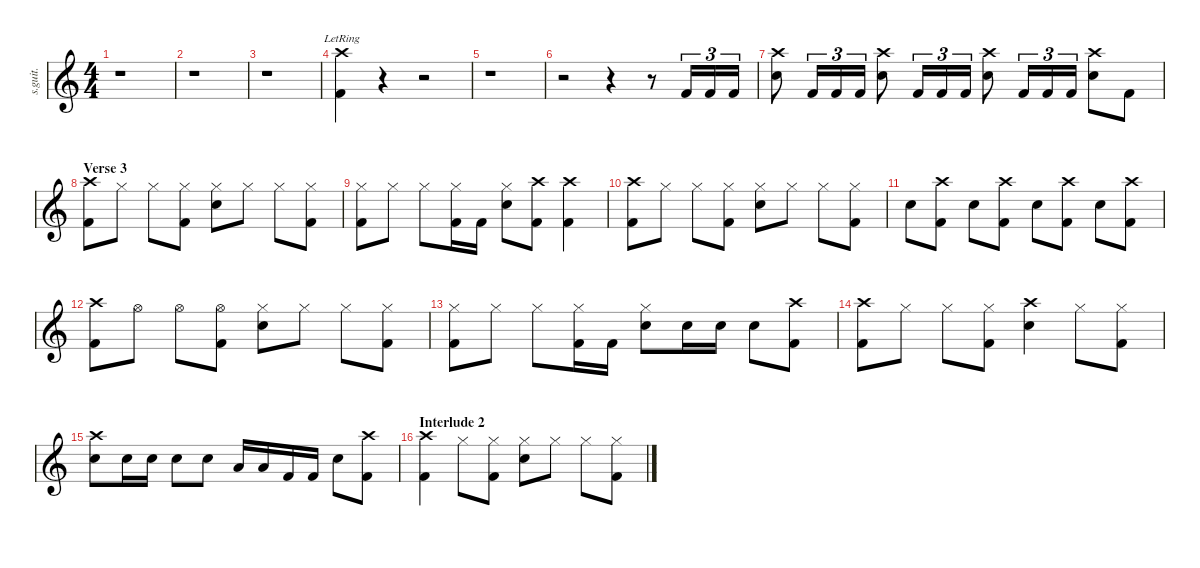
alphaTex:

\defaultSystemsLayout 4
\hideDynamics
\bracketExtendMode nobrackets
\track ("Lars Ulrich - Drumzzz" "s.guit.") {instrument percussion}
\staff {score}
\articulation defaults
\ts (4 4)
\tempo (142 hide)
\clef g2
\ks c
r.1{dy f} |
r.1 |
r.1 |
("Crash high (hit)"{lr} "Kick (hit) 2"{lr}).4{lyrics (0 "") lyrics (1 "") lyrics (2 "") lyrics (3 "") lyrics (4 "")} r.4 r.2 |
r.1 |
r.2 r.4 r.8 "Kick (hit) 2".16{tu (3 2) lyrics (0 "") lyrics (1 "") lyrics (2 "") lyrics (3 "") lyrics (4 "")} "Kick (hit) 2".16{tu (3 2) lyrics (0 "") lyrics (1 "") lyrics (2 "") lyrics (3 "") lyrics (4 "")} "Kick (hit) 2".16{tu (3 2) lyrics (0 "") lyrics (1 "") lyrics (2 "") lyrics (3 "") lyrics (4 "")} |
("Crash high (hit)" "Snare (hit) 2").8{lyrics (0 "") lyrics (1 "") lyrics (2 "") lyrics (3 "") lyrics (4 "")} "Kick (hit) 2".16{tu (3 2) lyrics (0 "") lyrics (1 "") lyrics (2 "") lyrics (3 "") lyrics (4 "")} "Kick (hit) 2".16{tu (3 2) lyrics (0 "") lyrics (1 "") lyrics (2 "") lyrics (3 "") lyrics (4 "")} "Kick (hit) 2".16{tu (3 2) lyrics (0 "") lyrics (1 "") lyrics (2 "") lyrics (3 "") lyrics (4 "")} ("Crash high (hit)" "Snare (hit) 2").8{lyrics (0 "") lyrics (1 "") lyrics (2 "") lyrics (3 "") lyrics (4 "")} "Kick (hit) 2".16{tu (3 2) lyrics (0 "") lyrics (1 "") lyrics (2 "") lyrics (3 "") lyrics (4 "")} "Kick (hit) 2".16{tu (3 2) lyrics (0 "") lyrics (1 "") lyrics (2 "") lyrics (3 "") lyrics (4 "")} "Kick (hit) 2".16{tu (3 2) lyrics (0 "") lyrics (1 "") lyrics (2 "") lyrics (3 "") lyrics (4 "")} ("Crash high (hit)" "Snare (hit) 2").8{lyrics (0 "") lyrics (1 "") lyrics (2 "") lyrics (3 "") lyrics (4 "")} "Kick (hit) 2".16{tu (3 2) lyrics (0 "") lyrics (1 "") lyrics (2 "") lyrics (3 "") lyrics (4 "")} "Kick (hit) 2".16{tu (3 2) lyrics (0 "") lyrics (1 "") lyrics (2 "") lyrics (3 "") lyrics (4 "")} "Kick (hit) 2".16{tu (3 2) lyrics (0 "") lyrics (1 "") lyrics (2 "") lyrics (3 "") lyrics (4 "")} ("Crash high (hit)" "Snare (hit) 2").8{lyrics (0 "") lyrics (1 "") lyrics (2 "") lyrics (3 "") lyrics (4 "")} "Kick (hit) 2".8{lyrics (0 "") lyrics (1 "") lyrics (2 "") lyrics (3 "") lyrics (4 "")} |
\section ("" "Verse 3")
("Crash high (hit)" "Kick (hit) 2").8{lyrics (0 "") lyrics (1 "") lyrics (2 "") lyrics (3 "") lyrics (4 "")} "Hi-Hat (closed)".8{lyrics (0 "") lyrics (1 "") lyrics (2 "") lyrics (3 "") lyrics (4 "")} "Hi-Hat (closed)".8{lyrics (0 "") lyrics (1 "") lyrics (2 "") lyrics (3 "") lyrics (4 "")} ("Hi-Hat (closed)" "Kick (hit) 2").8{lyrics (0 "") lyrics (1 "") lyrics (2 "") lyrics (3 "") lyrics (4 "")} ("Hi-Hat (closed)" "Snare (hit) 2").8{lyrics (0 "") lyrics (1 "") lyrics (2 "") lyrics (3 "") lyrics (4 "")} "Hi-Hat (closed)".8{lyrics (0 "") lyrics (1 "") lyrics (2 "") lyrics (3 "") lyrics (4 "")} "Hi-Hat (closed)".8{lyrics (0 "") lyrics (1 "") lyrics (2 "") lyrics (3 "") lyrics (4 "")} ("Hi-Hat (closed)" "Kick (hit) 2").8{lyrics (0 "") lyrics (1 "") lyrics (2 "") lyrics (3 "") lyrics (4 "")} |
("Hi-Hat (closed)" "Kick (hit) 2").8{lyrics (0 "") lyrics (1 "") lyrics (2 "") lyrics (3 "") lyrics (4 "")} "Hi-Hat (closed)".8{lyrics (0 "") lyrics (1 "") lyrics (2 "") lyrics (3 "") lyrics (4 "")} "Hi-Hat (closed)".8{lyrics (0 "") lyrics (1 "") lyrics (2 "") lyrics (3 "") lyrics (4 "")} ("Hi-Hat (closed)" "Kick (hit) 2").16{lyrics (0 "") lyrics (1 "") lyrics (2 "") lyrics (3 "") lyrics (4 "")} "Kick (hit) 2".16{lyrics (0 "") lyrics (1 "") lyrics (2 "") lyrics (3 "") lyrics (4 "")} ("Hi-Hat (closed)" "Snare (hit) 2").8{lyrics (0 "") lyrics (1 "") lyrics (2 "") lyrics (3 "") lyrics (4 "")} ("Crash high (hit)" "Kick (hit) 2").8{lyrics (0 "") lyrics (1 "") lyrics (2 "") lyrics (3 "") lyrics (4 "")} ("Crash high (hit)" "Kick (hit) 2").4{lyrics (0 "") lyrics (1 "") lyrics (2 "") lyrics (3 "") lyrics (4 "")} |
("Crash high (hit)" "Kick (hit) 2").8{lyrics (0 "") lyrics (1 "") lyrics (2 "") lyrics (3 "") lyrics (4 "")} "Hi-Hat (closed)".8{lyrics (0 "") lyrics (1 "") lyrics (2 "") lyrics (3 "") lyrics (4 "")} "Hi-Hat (closed)".8{lyrics (0 "") lyrics (1 "") lyrics (2 "") lyrics (3 "") lyrics (4 "")} ("Hi-Hat (closed)" "Kick (hit) 2").8{lyrics (0 "") lyrics (1 "") lyrics (2 "") lyrics (3 "") lyrics (4 "")} ("Hi-Hat (closed)" "Snare (hit) 2").8{lyrics (0 "") lyrics (1 "") lyrics (2 "") lyrics (3 "") lyrics (4 "")} "Hi-Hat (closed)".8{lyrics (0 "") lyrics (1 "") lyrics (2 "") lyrics (3 "") lyrics (4 "")} "Hi-Hat (closed)".8{lyrics (0 "") lyrics (1 "") lyrics (2 "") lyrics (3 "") lyrics (4 "")} ("Hi-Hat (closed)" "Kick (hit) 2").8{lyrics (0 "") lyrics (1 "") lyrics (2 "") lyrics (3 "") lyrics (4 "")} |
"Snare (hit) 2".8{lyrics (0 "") lyrics (1 "") lyrics (2 "") lyrics (3 "") lyrics (4 "")} ("Crash high (hit)" "Kick (hit) 2").8{lyrics (0 "") lyrics (1 "") lyrics (2 "") lyrics (3 "") lyrics (4 "")} "Snare (hit) 2".8{lyrics (0 "") lyrics (1 "") lyrics (2 "") lyrics (3 "") lyrics (4 "")} ("Crash high (hit)" "Kick (hit) 2").8{lyrics (0 "") lyrics (1 "") lyrics (2 "") lyrics (3 "") lyrics (4 "")} "Snare (hit) 2".8{lyrics (0 "") lyrics (1 "") lyrics (2 "") lyrics (3 "") lyrics (4 "")} ("Crash high (hit)" "Kick (hit) 2").8{lyrics (0 "") lyrics (1 "") lyrics (2 "") lyrics (3 "") lyrics (4 "")} "Snare (hit) 2".8{lyrics (0 "") lyrics (1 "") lyrics (2 "") lyrics (3 "") lyrics (4 "")} ("Crash high (hit)" "Kick (hit) 2").8{lyrics (0 "") lyrics (1 "") lyrics (2 "") lyrics (3 "") lyrics (4 "")} |
("Crash high (hit)" "Kick (hit) 2").8{lyrics (0 "") lyrics (1 "") lyrics (2 "") lyrics (3 "") lyrics (4 "")} "Hi-Hat (open)".8{lyrics (0 "") lyrics (1 "") lyrics (2 "") lyrics (3 "") lyrics (4 "")} "Hi-Hat (open)".8{lyrics (0 "") lyrics (1 "") lyrics (2 "") lyrics (3 "") lyrics (4 "")} ("Hi-Hat (open)" "Kick (hit) 2").8{lyrics (0 "") lyrics (1 "") lyrics (2 "") lyrics (3 "") lyrics (4 "")} ("Hi-Hat (closed)" "Snare (hit) 2").8{lyrics (0 "") lyrics (1 "") lyrics (2 "") lyrics (3 "") lyrics (4 "")} "Hi-Hat (closed)".8{lyrics (0 "") lyrics (1 "") lyrics (2 "") lyrics (3 "") lyrics (4 "")} "Hi-Hat (closed)".8{lyrics (0 "") lyrics (1 "") lyrics (2 "") lyrics (3 "") lyrics (4 "")} ("Hi-Hat (closed)" "Kick (hit) 2").8{lyrics (0 "") lyrics (1 "") lyrics (2 "") lyrics (3 "") lyrics (4 "")} |
("Hi-Hat (closed)" "Kick (hit) 2").8{lyrics (0 "") lyrics (1 "") lyrics (2 "") lyrics (3 "") lyrics (4 "")} "Hi-Hat (closed)".8{lyrics (0 "") lyrics (1 "") lyrics (2 "") lyrics (3 "") lyrics (4 "")} "Hi-Hat (closed)".8{lyrics (0 "") lyrics (1 "") lyrics (2 "") lyrics (3 "") lyrics (4 "")} ("Hi-Hat (closed)" "Kick (hit) 2").16{lyrics (0 "") lyrics (1 "") lyrics (2 "") lyrics (3 "") lyrics (4 "")} "Kick (hit) 2".16{lyrics (0 "") lyrics (1 "") lyrics (2 "") lyrics (3 "") lyrics (4 "")} ("Hi-Hat (closed)" "Snare (hit) 2").8{lyrics (0 "") lyrics (1 "") lyrics (2 "") lyrics (3 "") lyrics (4 "")} "Snare (hit) 2".16{lyrics (0 "") lyrics (1 "") lyrics (2 "") lyrics (3 "") lyrics (4 "")} "Snare (hit) 2".16{lyrics (0 "") lyrics (1 "") lyrics (2 "") lyrics (3 "") lyrics (4 "")} "Snare (hit) 2".8{lyrics (0 "") lyrics (1 "") lyrics (2 "") lyrics (3 "") lyrics (4 "")} ("Crash high (hit)" "Kick (hit) 2").8{lyrics (0 "") lyrics (1 "") lyrics (2 "") lyrics (3 "") lyrics (4 "")} |
("Crash high (hit)" "Kick (hit) 2").8{lyrics (0 "") lyrics (1 "") lyrics (2 "") lyrics (3 "") lyrics (4 "")} "Hi-Hat (closed)".8{lyrics (0 "") lyrics (1 "") lyrics (2 "") lyrics (3 "") lyrics (4 "")} "Hi-Hat (closed)".8{lyrics (0 "") lyrics (1 "") lyrics (2 "") lyrics (3 "") lyrics (4 "")} ("Hi-Hat (closed)" "Kick (hit) 2").8{lyrics (0 "") lyrics (1 "") lyrics (2 "") lyrics (3 "") lyrics (4 "")} ("Crash high (hit)" "Snare (hit) 2").4{lyrics (0 "") lyrics (1 "") lyrics (2 "") lyrics (3 "") lyrics (4 "")} "Hi-Hat (closed)".8{lyrics (0 "") lyrics (1 "") lyrics (2 "") lyrics (3 "") lyrics (4 "")} ("Hi-Hat (closed)" "Kick (hit) 2").8{lyrics (0 "") lyrics (1 "") lyrics (2 "") lyrics (3 "") lyrics (4 "")} |
("Crash high (hit)" "Snare (hit) 2").8{lyrics (0 "") lyrics (1 "") lyrics (2 "") lyrics (3 "") lyrics (4 "")} "Snare (hit) 2".16{lyrics (0 "") lyrics (1 "") lyrics (2 "") lyrics (3 "") lyrics (4 "")} "Snare (hit) 2".16{lyrics (0 "") lyrics (1 "") lyrics (2 "") lyrics (3 "") lyrics (4 "")} "Snare (hit) 2".8{lyrics (0 "") lyrics (1 "") lyrics (2 "") lyrics (3 "") lyrics (4 "")} "Snare (hit) 2".8{lyrics (0 "") lyrics (1 "") lyrics (2 "") lyrics (3 "") lyrics (4 "")} "Low Tom (hit)".16{lyrics (0 "") lyrics (1 "") lyrics (2 "") lyrics (3 "") lyrics (4 "")} "Low Tom (hit)".16{lyrics (0 "") lyrics (1 "") lyrics (2 "") lyrics (3 "") lyrics (4 "")} "Kick (hit) 2".16{lyrics (0 "") lyrics (1 "") lyrics (2 "") lyrics (3 "") lyrics (4 "")} "Kick (hit) 2".16{lyrics (0 "") lyrics (1 "") lyrics (2 "") lyrics (3 "") lyrics (4 "")} "Snare (hit) 2".8{lyrics (0 "") lyrics (1 "") lyrics (2 "") lyrics (3 "") lyrics (4 "")} ("Crash high (hit)" "Kick (hit) 2").8{lyrics (0 "") lyrics (1 "") lyrics (2 "") lyrics (3 "") lyrics (4 "")} |
\section ("" "Interlude 2")
("Crash high (hit)" "Kick (hit) 2").4{lyrics (0 "") lyrics (1 "") lyrics (2 "") lyrics (3 "") lyrics (4 "")} "Hi-Hat (closed)".8{lyrics (0 "") lyrics (1 "") lyrics (2 "") lyrics (3 "") lyrics (4 "")} ("Hi-Hat (closed)" "Kick (hit) 2").8{lyrics (0 "") lyrics (1 "") lyrics (2 "") lyrics (3 "") lyrics (4 "")} ("Hi-Hat (closed)" "Snare (hit) 2").8{lyrics (0 "") lyrics (1 "") lyrics (2 "") lyrics (3 "") lyrics (4 "")} "Hi-Hat (closed)".8{lyrics (0 "") lyrics (1 "") lyrics (2 "") lyrics (3 "") lyrics (4 "")} "Hi-Hat (closed)".8{lyrics (0 "") lyrics (1 "") lyrics (2 "") lyrics (3 "") lyrics (4 "")} ("Hi-Hat (closed)" "Kick (hit) 2").8{lyrics (0 "") lyrics (1 "") lyrics (2 "") lyrics (3 "") lyrics (4 "")}
